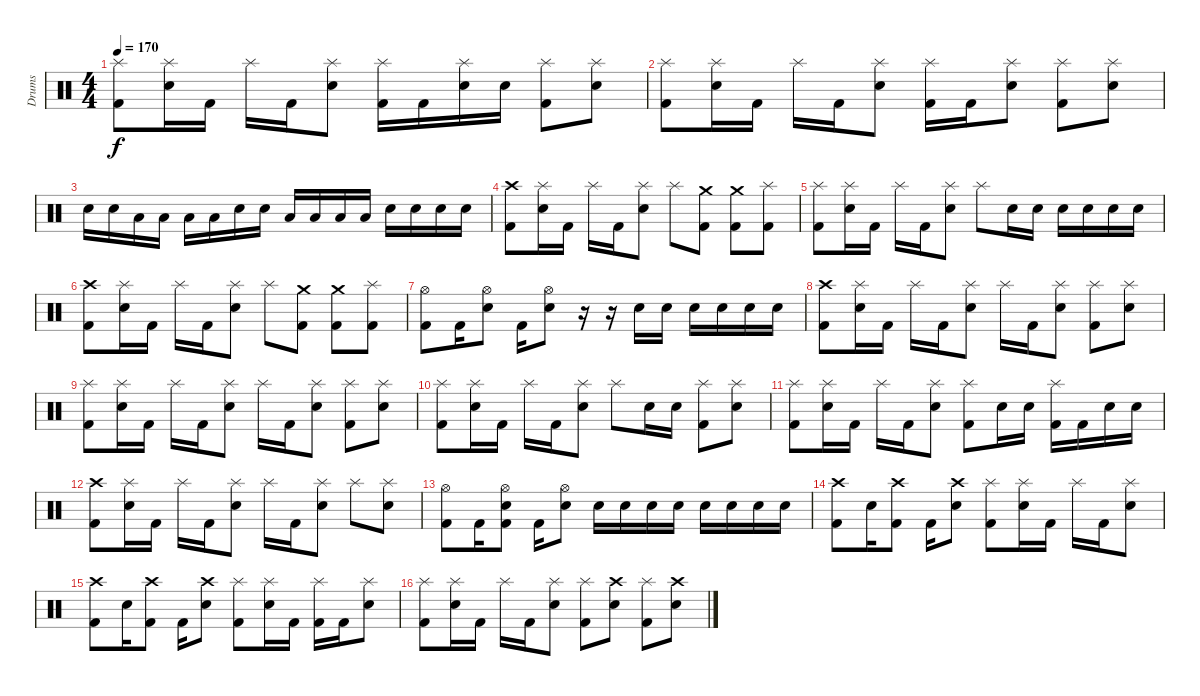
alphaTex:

\track ("Drums" "Drums") {instrument percussion}
\staff {score}
\articulation defaults
\ts (4 4)
\tempo 170
\clef neutral
\ks c
("Splash (hit)" "Kick (hit) 2").8{dy f} ("Splash (hit)" "Electric Snare (hit)").16 "Kick (hit) 2".16 "Splash (hit)".16 "Kick (hit) 2".16 ("Splash (hit)" "Electric Snare (hit)").8 ("Splash (hit)" "Kick (hit) 2").16 "Kick (hit) 2".16 ("Splash (hit)" "Electric Snare (hit)").16 "Electric Snare (hit)".16 ("Splash (hit)" "Kick (hit) 2").8 ("Splash (hit)" "Electric Snare (hit)").8 |
("Splash (hit)" "Kick (hit) 2").8 ("Splash (hit)" "Electric Snare (hit)").16 "Kick (hit) 2".16 "Splash (hit)".16 "Kick (hit) 2".16 ("Splash (hit)" "Electric Snare (hit)").8 ("Splash (hit)" "Kick (hit) 2").16 "Kick (hit) 2".16 ("Splash (hit)" "Electric Snare (hit)").8 ("Splash (hit)" "Kick (hit) 2").8 ("Splash (hit)" "Electric Snare (hit)").8 |
"Electric Snare (hit)".16 "Electric Snare (hit)".16 "Low Tom (hit)".16 "Low Tom (hit)".16 "Low Tom (hit)".16 "Low Tom (hit)".16 "Electric Snare (hit)".16 "Electric Snare (hit)".16 "Low Tom (hit)".16 "Low Tom (hit)".16 "Low Tom (hit)".16 "Low Tom (hit)".16 "Electric Snare (hit)".16 "Electric Snare (hit)".16 "Electric Snare (hit)".16 "Electric Snare (hit)".16 |
("Crash high (hit)" "Kick (hit) 2").8 ("Splash (hit)" "Electric Snare (hit)").16 "Kick (hit) 2".16 "Splash (hit)".16 "Kick (hit) 2".16 ("Splash (hit)" "Electric Snare (hit)").8 "Splash (hit)".8 ("Crash medium (hit)" "Kick (hit) 2").8 ("Crash medium (hit)" "Kick (hit) 2").8 ("Splash (hit)" "Kick (hit) 2").8 |
("Splash (hit)" "Kick (hit) 2").8 ("Splash (hit)" "Electric Snare (hit)").16 "Kick (hit) 2".16 "Splash (hit)".16 "Kick (hit) 2".16 ("Splash (hit)" "Electric Snare (hit)").8 "Splash (hit)".8 "Electric Snare (hit)".16 "Electric Snare (hit)".16 "Electric Snare (hit)".16 "Electric Snare (hit)".16 "Electric Snare (hit)".16 "Electric Snare (hit)".16 |
("Crash high (hit)" "Kick (hit) 2").8 ("Splash (hit)" "Electric Snare (hit)").16 "Kick (hit) 2".16 "Splash (hit)".16 "Kick (hit) 2".16 ("Splash (hit)" "Electric Snare (hit)").8 "Splash (hit)".8 ("Crash medium (hit)" "Kick (hit) 2").8 ("Crash medium (hit)" "Kick (hit) 2").8 ("Splash (hit)" "Kick (hit) 2").8 |
("Hi-Hat (open)" "Kick (hit) 2").8 "Kick (hit) 2".16 ("Hi-Hat (open)" "Electric Snare (hit)").8 "Kick (hit) 2".16 ("Hi-Hat (open)" "Electric Snare (hit)").8 r.16 r.16 "Electric Snare (hit)".16 "Electric Snare (hit)".16 "Electric Snare (hit)".16 "Electric Snare (hit)".16 "Electric Snare (hit)".16 "Electric Snare (hit)".16 |
("Crash high (hit)" "Kick (hit) 2").8 ("Splash (hit)" "Electric Snare (hit)").16 "Kick (hit) 2".16 "Splash (hit)".16 "Kick (hit) 2".16 ("Splash (hit)" "Electric Snare (hit)").8 "Splash (hit)".16 "Kick (hit) 2".16 ("Splash (hit)" "Electric Snare (hit)").8 ("Splash (hit)" "Kick (hit) 2").8 ("Splash (hit)" "Electric Snare (hit)").8 |
("Splash (hit)" "Kick (hit) 2").8 ("Splash (hit)" "Electric Snare (hit)").16 "Kick (hit) 2".16 "Splash (hit)".16 "Kick (hit) 2".16 ("Splash (hit)" "Electric Snare (hit)").8 "Splash (hit)".16 "Kick (hit) 2".16 ("Splash (hit)" "Electric Snare (hit)").8 ("Splash (hit)" "Kick (hit) 2").8 ("Splash (hit)" "Electric Snare (hit)").8 |
("Splash (hit)" "Kick (hit) 2").8 ("Splash (hit)" "Electric Snare (hit)").16 "Kick (hit) 2".16 "Splash (hit)".16 "Kick (hit) 2".16 ("Splash (hit)" "Electric Snare (hit)").8 "Splash (hit)".8 "Electric Snare (hit)".16 "Electric Snare (hit)".16 ("Splash (hit)" "Kick (hit) 2").8 ("Splash (hit)" "Electric Snare (hit)").8 |
("Splash (hit)" "Kick (hit) 2").8 ("Splash (hit)" "Electric Snare (hit)").16 "Kick (hit) 2".16 "Splash (hit)".16 "Kick (hit) 2".16 ("Splash (hit)" "Electric Snare (hit)").8 ("Splash (hit)" "Kick (hit) 2").8 "Electric Snare (hit)".16 "Electric Snare (hit)".16 ("Splash (hit)" "Kick (hit) 2").16 "Kick (hit) 2".16 "Electric Snare (hit)".16 "Electric Snare (hit)".16 |
("Crash high (hit)" "Kick (hit) 2").8 ("Splash (hit)" "Electric Snare (hit)").16 "Kick (hit) 2".16 "Splash (hit)".16 "Kick (hit) 2".16 ("Splash (hit)" "Electric Snare (hit)").8 "Splash (hit)".16 "Kick (hit) 2".16 ("Splash (hit)" "Electric Snare (hit)").8 "Splash (hit)".8 ("Splash (hit)" "Electric Snare (hit)").8 |
("Hi-Hat (open)" "Kick (hit) 2").8 "Kick (hit) 2".16 ("Hi-Hat (open)" "Electric Snare (hit)" "Kick (hit) 2").8 "Kick (hit) 2".16 ("Hi-Hat (open)" "Electric Snare (hit)").8 "Electric Snare (hit)".16 "Electric Snare (hit)".16 "Electric Snare (hit)".16 "Electric Snare (hit)".16 "Electric Snare (hit)".16 "Electric Snare (hit)".16 "Electric Snare (hit)".16 "Electric Snare (hit)".16 |
("Crash high (hit)" "Kick (hit) 2").8 "Electric Snare (hit)".16 ("Crash high (hit)" "Kick (hit) 2").8 "Kick (hit) 2".16 ("Crash high (hit)" "Electric Snare (hit)").8 ("Splash (hit)" "Kick (hit) 2").8 ("Splash (hit)" "Electric Snare (hit)").16 "Kick (hit) 2".16 "Splash (hit)".16 "Kick (hit) 2".16 ("Splash (hit)" "Electric Snare (hit)").8 |
("Crash high (hit)" "Kick (hit) 2").8 "Electric Snare (hit)".16 ("Crash high (hit)" "Kick (hit) 2").8 "Kick (hit) 2".16 ("Crash high (hit)" "Electric Snare (hit)").8 ("Splash (hit)" "Kick (hit) 2").8 ("Splash (hit)" "Electric Snare (hit)").16 "Kick (hit) 2".16 ("Splash (hit)" "Kick (hit) 2").16 "Kick (hit) 2".16 ("Splash (hit)" "Electric Snare (hit)").8 |
("Splash (hit)" "Kick (hit) 2").8 ("Splash (hit)" "Electric Snare (hit)").16 "Kick (hit) 2".16 "Splash (hit)".16 "Kick (hit) 2".16 ("Splash (hit)" "Electric Snare (hit)").8 ("Splash (hit)" "Kick (hit) 2").8 ("Crash high (hit)" "Electric Snare (hit)").8 ("Splash (hit)" "Kick (hit) 2").8 ("Crash high (hit)" "Electric Snare (hit)").8
